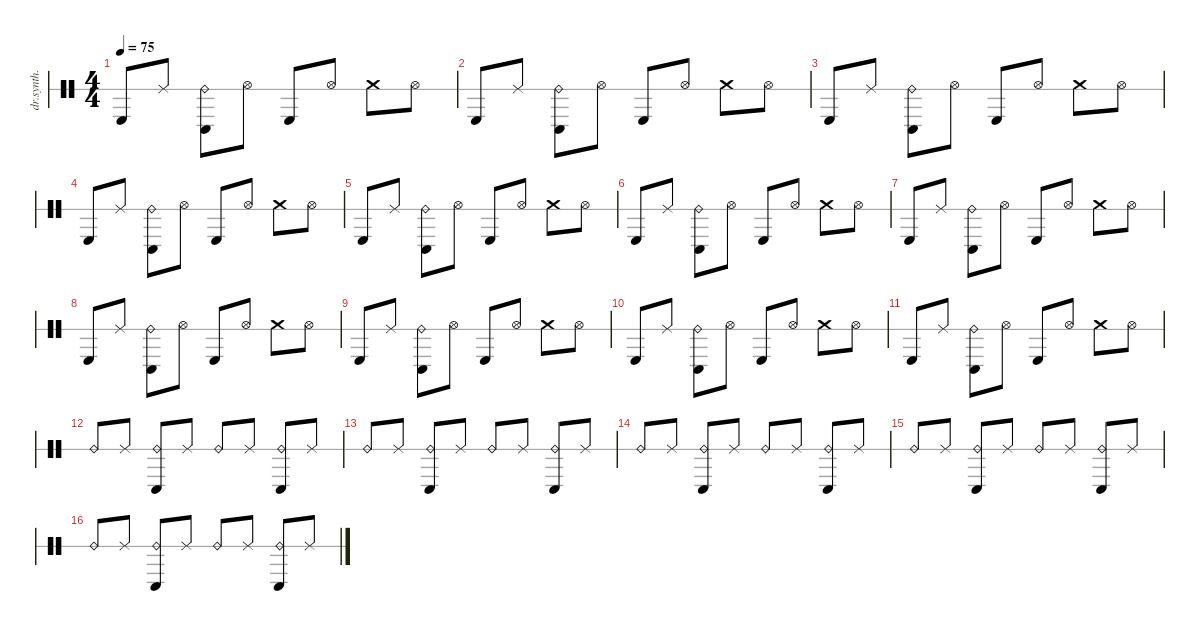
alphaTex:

\defaultSystemsLayout 4
\hideDynamics
\bracketExtendMode nobrackets
\otherSystemsTrackNameOrientation horizontal
\track ("Synth Drum" "dr.synth.") {instrument percussion}
\staff {score 1}
\articulation defaults
\ts (4 4)
\tempo 75
\clef neutral
\ks c "Kick (hit) 2".8{dy mf beam Up} "Ride (middle)".8{dy f beam Up}
("Ride (bell)" "Timbale high (hit)").8{dy mp beam Down} "Hi-Hat (open)".8{dy mf beam Down} "Kick (hit) 2".8{beam Up} "Hi-Hat (open)".8{beam Up} "Crash medium (hit)".8{beam Down} "Hi-Hat (open)".8{beam Down} |
"Kick (hit) 2".8{beam Up} "Ride (middle)".8{dy f beam Up} ("Ride (bell)" "Timbale high (hit)").8{dy mp beam Down} "Hi-Hat (open)".8{dy mf beam Down} "Kick (hit) 2".8{beam Up} "Hi-Hat (open)".8{beam Up} "Crash medium (hit)".8{beam Down} "Hi-Hat (open)".8{beam Down} |
"Kick (hit) 2".8{beam Up} "Ride (middle)".8{dy f beam Up} ("Ride (bell)" "Timbale high (hit)").8{dy mp beam Down} "Hi-Hat (open)".8{dy mf beam Down} "Kick (hit) 2".8{beam Up} "Hi-Hat (open)".8{beam Up} "Crash medium (hit)".8{beam Down} "Hi-Hat (open)".8{beam Down} |
"Kick (hit) 2".8{beam Up} "Ride (middle)".8{dy f beam Up} ("Ride (bell)" "Timbale high (hit)").8{dy mp beam Down} "Hi-Hat (open)".8{dy mf beam Down} "Kick (hit) 2".8{beam Up} "Hi-Hat (open)".8{beam Up} "Crash medium (hit)".8{beam Down} "Hi-Hat (open)".8{beam Down} |
"Kick (hit) 2".8{beam Up} "Ride (middle)".8{dy f beam Up} ("Ride (bell)" "Timbale high (hit)").8{dy mp beam Down} "Hi-Hat (open)".8{dy mf beam Down} "Kick (hit) 2".8{beam Up} "Hi-Hat (open)".8{beam Up} "Crash medium (hit)".8{beam Down} "Hi-Hat (open)".8{beam Down} |
"Kick (hit) 2".8{beam Up} "Ride (middle)".8{dy f beam Up} ("Ride (bell)" "Timbale high (hit)").8{dy mp beam Down} "Hi-Hat (open)".8{dy mf beam Down} "Kick (hit) 2".8{beam Up} "Hi-Hat (open)".8{beam Up} "Crash medium (hit)".8{beam Down} "Hi-Hat (open)".8{beam Down} |
"Kick (hit) 2".8{beam Up} "Ride (middle)".8{dy f beam Up} ("Ride (bell)" "Timbale high (hit)").8{dy mp beam Down} "Hi-Hat (open)".8{dy mf beam Down} "Kick (hit) 2".8{beam Up} "Hi-Hat (open)".8{beam Up} "Crash medium (hit)".8{beam Down} "Hi-Hat (open)".8{beam Down} |
"Kick (hit) 2".8{beam Up} "Ride (middle)".8{dy f beam Up} ("Ride (bell)" "Timbale high (hit)").8{dy mp beam Down} "Hi-Hat (open)".8{dy mf beam Down} "Kick (hit) 2".8{beam Up} "Hi-Hat (open)".8{beam Up} "Crash medium (hit)".8{beam Down} "Hi-Hat (open)".8{beam Down} |
"Kick (hit) 2".8{beam Up} "Ride (middle)".8{dy f beam Up} ("Ride (bell)" "Timbale high (hit)").8{dy mp beam Down} "Hi-Hat (open)".8{dy mf beam Down} "Kick (hit) 2".8{beam Up} "Hi-Hat (open)".8{beam Up} "Crash medium (hit)".8{beam Down} "Hi-Hat (open)".8{beam Down} |
"Kick (hit) 2".8{beam Up} "Ride (middle)".8{dy f beam Up} ("Ride (bell)" "Timbale high (hit)").8{dy mp beam Down} "Hi-Hat (open)".8{dy mf beam Down} "Kick (hit) 2".8{beam Up} "Hi-Hat (open)".8{beam Up} "Crash medium (hit)".8{beam Down} "Hi-Hat (open)".8{beam Down} |
"Kick (hit) 2".8{beam Up} "Ride (middle)".8{dy f beam Up} ("Ride (bell)" "Timbale high (hit)").8{dy mp beam Down} "Hi-Hat (open)".8{dy mf beam Down} "Kick (hit) 2".8{beam Up} "Hi-Hat (open)".8{beam Up} "Crash medium (hit)".8{beam Down} "Hi-Hat (open)".8{beam Down} |
"Ride (bell)".8{dy f beam Up} "Ride (middle)".8{beam Up} ("Ride (bell)" "Timbale high (hit)").8{beam Up} "Ride (middle)".8{beam Up} "Ride (bell)".8{beam Up} "Ride (middle)".8{beam Up} ("Ride (bell)" "Timbale high (hit)").8{beam Up} "Ride (middle)".8{beam Up} |
"Ride (bell)".8{dy fff beam Up} "Ride (middle)".8{dy p beam Up} ("Ride (bell)" "Timbale high (hit)").8{dy mp beam Up} "Ride (middle)".8{dy f beam Up} "Ride (bell)".8{dy fff beam Up} "Ride (middle)".8{dy p beam Up} ("Ride (bell)" "Timbale high (hit)").8{dy mp beam Up} "Ride (middle)".8{dy f beam Up} |
"Ride (bell)".8{beam Up} "Ride (middle)".8{beam Up} ("Ride (bell)" "Timbale high (hit)").8{beam Up} "Ride (middle)".8{beam Up} "Ride (bell)".8{beam Up} "Ride (middle)".8{beam Up} ("Ride (bell)" "Timbale high (hit)").8{beam Up} "Ride (middle)".8{beam Up} |
"Ride (bell)".8{dy fff beam Up} "Ride (middle)".8{dy p beam Up} ("Ride (bell)" "Timbale high (hit)").8{dy mp beam Up} "Ride (middle)".8{dy f beam Up} "Ride (bell)".8{dy fff beam Up} "Ride (middle)".8{dy p beam Up} ("Ride (bell)" "Timbale high (hit)").8{dy mp beam Up} "Ride (middle)".8{dy f beam Up} |
"Ride (bell)".8{beam Up} "Ride (middle)".8{beam Up} ("Ride (bell)" "Timbale high (hit)").8{beam Up} "Ride (middle)".8{beam Up} "Ride (bell)".8{beam Up} "Ride (middle)".8{beam Up} ("Ride (bell)" "Timbale high (hit)").8{beam Up} "Ride (middle)".8{beam Up}
